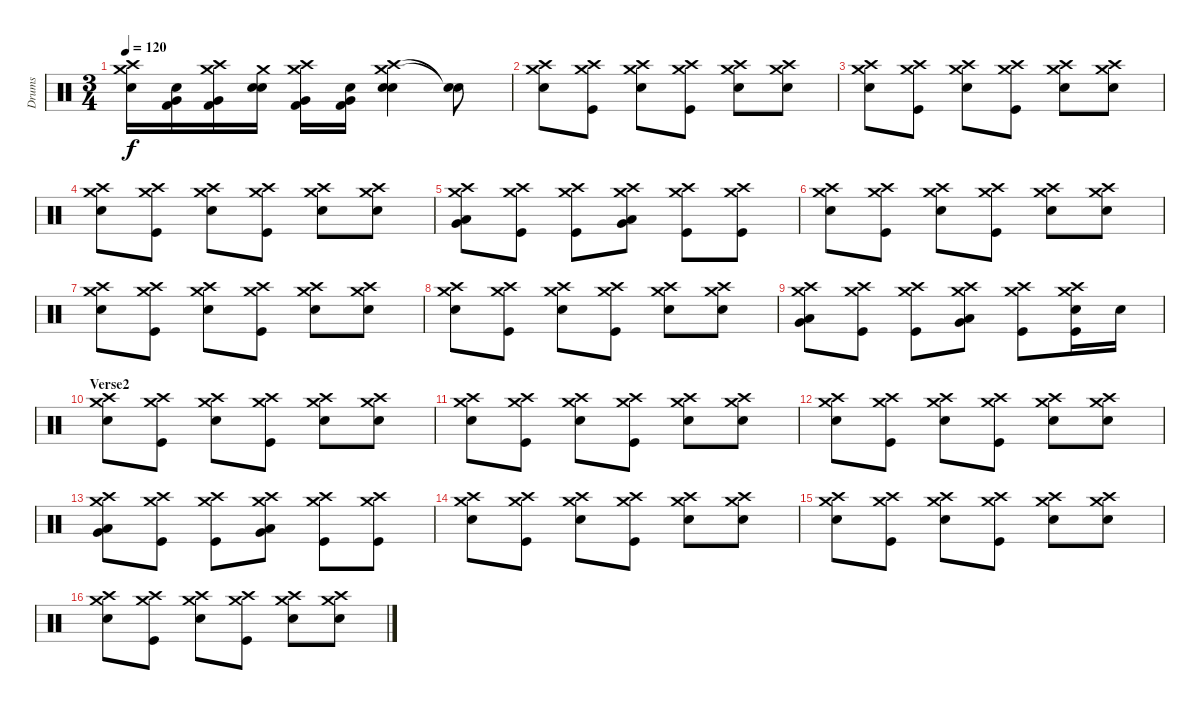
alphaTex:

\track ("Drums" "Drums") {instrument percussion}
\staff {score}
\articulation defaults
\ts (3 4)
\tempo 120
\clef neutral
\ks c
("Crash high (hit)" "Crash medium (hit)" "Electric Snare (hit)").16{dy f} ("Snare (hit)"{x} "Very Low Tom (hit)" "Kick (hit) 2").16 ("Crash high (hit)" "Crash medium (hit)" "Very Low Tom (hit)" "Kick (hit) 2").16 ("Snare (hit)"{x} "Crash medium (hit)"{x} "Electric Snare (hit)").16 ("Crash high (hit)" "Crash medium (hit)" "Very Low Tom (hit)" "Kick (hit) 2").16 ("Snare (hit)"{x} "Very Low Tom (hit)" "Kick (hit) 2").16 ("Crash high (hit)" "Crash medium (hit)" "Electric Snare (hit)" "Snare (hit) 2").4 ("Snare (hit)"{t} "Snare (hit)"{t}).8 |
("Crash high (hit)" "Crash medium (hit)" "Electric Snare (hit)").8 ("Crash high (hit)" "Crash medium (hit)" "Kick (hit)").8 ("Crash high (hit)" "Crash medium (hit)" "Electric Snare (hit)").8 ("Crash high (hit)" "Crash medium (hit)" "Kick (hit)").8 ("Crash high (hit)" "Crash medium (hit)" "Electric Snare (hit)").8 ("Crash high (hit)" "Crash medium (hit)" "Electric Snare (hit)").8 |
("Crash high (hit)" "Crash medium (hit)" "Electric Snare (hit)").8 ("Crash high (hit)" "Crash medium (hit)" "Kick (hit)").8 ("Crash high (hit)" "Crash medium (hit)" "Electric Snare (hit)").8 ("Crash high (hit)" "Crash medium (hit)" "Kick (hit)").8 ("Crash high (hit)" "Crash medium (hit)" "Electric Snare (hit)").8 ("Crash high (hit)" "Crash medium (hit)" "Electric Snare (hit)").8 |
("Crash high (hit)" "Crash medium (hit)" "Electric Snare (hit)").8 ("Crash high (hit)" "Crash medium (hit)" "Kick (hit)").8 ("Crash high (hit)" "Crash medium (hit)" "Electric Snare (hit)").8 ("Crash high (hit)" "Crash medium (hit)" "Kick (hit)").8 ("Crash high (hit)" "Crash medium (hit)" "Electric Snare (hit)").8 ("Crash high (hit)" "Crash medium (hit)" "Electric Snare (hit)").8 |
("Crash high (hit)" "Crash medium (hit)" "Low Tom (hit)" "Very Low Tom (hit)").8 ("Crash high (hit)" "Crash medium (hit)" "Kick (hit)").8 ("Crash high (hit)" "Crash medium (hit)" "Kick (hit)").8 ("Crash high (hit)" "Crash medium (hit)" "Low Tom (hit)" "Very Low Tom (hit)").8 ("Crash high (hit)" "Crash medium (hit)" "Kick (hit)").8 ("Crash high (hit)" "Crash medium (hit)" "Kick (hit)").8 |
("Crash high (hit)" "Crash medium (hit)" "Electric Snare (hit)").8 ("Crash high (hit)" "Crash medium (hit)" "Kick (hit)").8 ("Crash high (hit)" "Crash medium (hit)" "Electric Snare (hit)").8 ("Crash high (hit)" "Crash medium (hit)" "Kick (hit)").8 ("Crash high (hit)" "Crash medium (hit)" "Electric Snare (hit)").8 ("Crash high (hit)" "Crash medium (hit)" "Electric Snare (hit)").8 |
("Crash high (hit)" "Crash medium (hit)" "Electric Snare (hit)").8 ("Crash high (hit)" "Crash medium (hit)" "Kick (hit)").8 ("Crash high (hit)" "Crash medium (hit)" "Electric Snare (hit)").8 ("Crash high (hit)" "Crash medium (hit)" "Kick (hit)").8 ("Crash high (hit)" "Crash medium (hit)" "Electric Snare (hit)").8 ("Crash high (hit)" "Crash medium (hit)" "Electric Snare (hit)").8 |
("Crash high (hit)" "Crash medium (hit)" "Electric Snare (hit)").8 ("Crash high (hit)" "Crash medium (hit)" "Kick (hit)").8 ("Crash high (hit)" "Crash medium (hit)" "Electric Snare (hit)").8 ("Crash high (hit)" "Crash medium (hit)" "Kick (hit)").8 ("Crash high (hit)" "Crash medium (hit)" "Electric Snare (hit)").8 ("Crash high (hit)" "Crash medium (hit)" "Electric Snare (hit)").8 |
("Crash high (hit)" "Crash medium (hit)" "Low Tom (hit)" "Very Low Tom (hit)").8 ("Crash high (hit)" "Crash medium (hit)" "Kick (hit)").8 ("Crash high (hit)" "Crash medium (hit)" "Kick (hit)").8 ("Crash high (hit)" "Crash medium (hit)" "Low Tom (hit)" "Very Low Tom (hit)").8 ("Crash high (hit)" "Crash medium (hit)" "Kick (hit)").8 ("Crash high (hit)" "Crash medium (hit)" "Electric Snare (hit)" "Kick (hit)").16 "Electric Snare (hit)".16 |
\section ("" "Verse2")
("Crash high (hit)" "Crash medium (hit)" "Electric Snare (hit)").8 ("Crash high (hit)" "Crash medium (hit)" "Kick (hit)").8 ("Crash high (hit)" "Crash medium (hit)" "Electric Snare (hit)").8 ("Crash high (hit)" "Crash medium (hit)" "Kick (hit)").8 ("Crash high (hit)" "Crash medium (hit)" "Electric Snare (hit)").8 ("Crash high (hit)" "Crash medium (hit)" "Electric Snare (hit)").8 |
("Crash high (hit)" "Crash medium (hit)" "Electric Snare (hit)").8 ("Crash high (hit)" "Crash medium (hit)" "Kick (hit)").8 ("Crash high (hit)" "Crash medium (hit)" "Electric Snare (hit)").8 ("Crash high (hit)" "Crash medium (hit)" "Kick (hit)").8 ("Crash high (hit)" "Crash medium (hit)" "Electric Snare (hit)").8 ("Crash high (hit)" "Crash medium (hit)" "Electric Snare (hit)").8 |
("Crash high (hit)" "Crash medium (hit)" "Electric Snare (hit)").8 ("Crash high (hit)" "Crash medium (hit)" "Kick (hit)").8 ("Crash high (hit)" "Crash medium (hit)" "Electric Snare (hit)").8 ("Crash high (hit)" "Crash medium (hit)" "Kick (hit)").8 ("Crash high (hit)" "Crash medium (hit)" "Electric Snare (hit)").8 ("Crash high (hit)" "Crash medium (hit)" "Electric Snare (hit)").8 |
("Crash high (hit)" "Crash medium (hit)" "Low Tom (hit)" "Very Low Tom (hit)").8 ("Crash high (hit)" "Crash medium (hit)" "Kick (hit)").8 ("Crash high (hit)" "Crash medium (hit)" "Kick (hit)").8 ("Crash high (hit)" "Crash medium (hit)" "Low Tom (hit)" "Very Low Tom (hit)").8 ("Crash high (hit)" "Crash medium (hit)" "Kick (hit)").8 ("Crash high (hit)" "Crash medium (hit)" "Kick (hit)").8 |
("Crash high (hit)" "Crash medium (hit)" "Electric Snare (hit)").8 ("Crash high (hit)" "Crash medium (hit)" "Kick (hit)").8 ("Crash high (hit)" "Crash medium (hit)" "Electric Snare (hit)").8 ("Crash high (hit)" "Crash medium (hit)" "Kick (hit)").8 ("Crash high (hit)" "Crash medium (hit)" "Electric Snare (hit)").8 ("Crash high (hit)" "Crash medium (hit)" "Electric Snare (hit)").8 |
("Crash high (hit)" "Crash medium (hit)" "Electric Snare (hit)").8 ("Crash high (hit)" "Crash medium (hit)" "Kick (hit)").8 ("Crash high (hit)" "Crash medium (hit)" "Electric Snare (hit)").8 ("Crash high (hit)" "Crash medium (hit)" "Kick (hit)").8 ("Crash high (hit)" "Crash medium (hit)" "Electric Snare (hit)").8 ("Crash high (hit)" "Crash medium (hit)" "Electric Snare (hit)").8 |
("Crash high (hit)" "Crash medium (hit)" "Electric Snare (hit)").8 ("Crash high (hit)" "Crash medium (hit)" "Kick (hit)").8 ("Crash high (hit)" "Crash medium (hit)" "Electric Snare (hit)").8 ("Crash high (hit)" "Crash medium (hit)" "Kick (hit)").8 ("Crash high (hit)" "Crash medium (hit)" "Electric Snare (hit)").8 ("Crash high (hit)" "Crash medium (hit)" "Electric Snare (hit)").8
